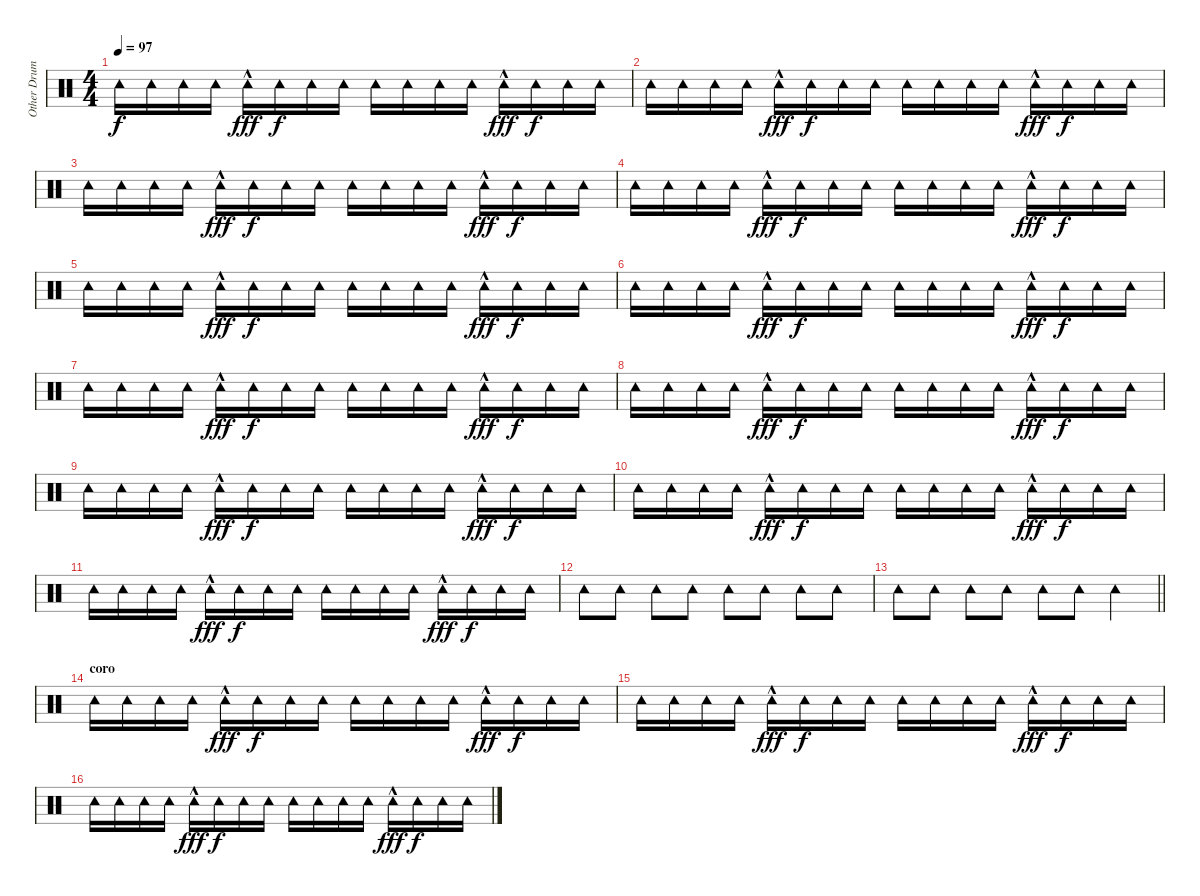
\track ("Other Drumer" "Other Drum") {instrument percussion}
\staff {score}
\articulation defaults
\ts (4 4)
\tempo 97
\clef neutral
\ks c "Tambourine (hit)".16{dy f} "Tambourine (hit)".16 "Tambourine (hit)".16 "Tambourine (hit)".16 "Tambourine (hit)"{hac}.16{dy fff} "Tambourine (hit)".16{dy f} "Tambourine (hit)".16 "Tambourine (hit)".16 "Tambourine (hit)".16 "Tambourine (hit)".16 "Tambourine (hit)".16 "Tambourine (hit)".16 "Tambourine (hit)"{hac}.16{dy fff} "Tambourine (hit)".16{dy f} "Tambourine (hit)".16 "Tambourine (hit)".16
|
"Tambourine (hit)".16 "Tambourine (hit)".16 "Tambourine (hit)".16 "Tambourine (hit)".16 "Tambourine (hit)"{hac}.16{dy fff} "Tambourine (hit)".16{dy f} "Tambourine (hit)".16 "Tambourine (hit)".16 "Tambourine (hit)".16 "Tambourine (hit)".16 "Tambourine (hit)".16 "Tambourine (hit)".16 "Tambourine (hit)"{hac}.16{dy fff} "Tambourine (hit)".16{dy f} "Tambourine (hit)".16 "Tambourine (hit)".16 |
"Tambourine (hit)".16 "Tambourine (hit)".16 "Tambourine (hit)".16 "Tambourine (hit)".16 "Tambourine (hit)"{hac}.16{dy fff} "Tambourine (hit)".16{dy f} "Tambourine (hit)".16 "Tambourine (hit)".16 "Tambourine (hit)".16 "Tambourine (hit)".16 "Tambourine (hit)".16 "Tambourine (hit)".16 "Tambourine (hit)"{hac}.16{dy fff} "Tambourine (hit)".16{dy f} "Tambourine (hit)".16 "Tambourine (hit)".16 |
"Tambourine (hit)".16 "Tambourine (hit)".16 "Tambourine (hit)".16 "Tambourine (hit)".16 "Tambourine (hit)"{hac}.16{dy fff} "Tambourine (hit)".16{dy f} "Tambourine (hit)".16 "Tambourine (hit)".16 "Tambourine (hit)".16 "Tambourine (hit)".16 "Tambourine (hit)".16 "Tambourine (hit)".16 "Tambourine (hit)"{hac}.16{dy fff} "Tambourine (hit)".16{dy f} "Tambourine (hit)".16 "Tambourine (hit)".16 |
"Tambourine (hit)".16 "Tambourine (hit)".16 "Tambourine (hit)".16 "Tambourine (hit)".16 "Tambourine (hit)"{hac}.16{dy fff} "Tambourine (hit)".16{dy f} "Tambourine (hit)".16 "Tambourine (hit)".16 "Tambourine (hit)".16 "Tambourine (hit)".16 "Tambourine (hit)".16 "Tambourine (hit)".16 "Tambourine (hit)"{hac}.16{dy fff} "Tambourine (hit)".16{dy f} "Tambourine (hit)".16 "Tambourine (hit)".16 |
"Tambourine (hit)".16 "Tambourine (hit)".16 "Tambourine (hit)".16 "Tambourine (hit)".16 "Tambourine (hit)"{hac}.16{dy fff} "Tambourine (hit)".16{dy f} "Tambourine (hit)".16 "Tambourine (hit)".16 "Tambourine (hit)".16 "Tambourine (hit)".16 "Tambourine (hit)".16 "Tambourine (hit)".16 "Tambourine (hit)"{hac}.16{dy fff} "Tambourine (hit)".16{dy f} "Tambourine (hit)".16 "Tambourine (hit)".16 |
"Tambourine (hit)".16 "Tambourine (hit)".16 "Tambourine (hit)".16 "Tambourine (hit)".16 "Tambourine (hit)"{hac}.16{dy fff} "Tambourine (hit)".16{dy f} "Tambourine (hit)".16 "Tambourine (hit)".16 "Tambourine (hit)".16 "Tambourine (hit)".16 "Tambourine (hit)".16 "Tambourine (hit)".16 "Tambourine (hit)"{hac}.16{dy fff} "Tambourine (hit)".16{dy f} "Tambourine (hit)".16 "Tambourine (hit)".16 |
"Tambourine (hit)".16 "Tambourine (hit)".16 "Tambourine (hit)".16 "Tambourine (hit)".16 "Tambourine (hit)"{hac}.16{dy fff} "Tambourine (hit)".16{dy f} "Tambourine (hit)".16 "Tambourine (hit)".16 "Tambourine (hit)".16 "Tambourine (hit)".16 "Tambourine (hit)".16 "Tambourine (hit)".16 "Tambourine (hit)"{hac}.16{dy fff} "Tambourine (hit)".16{dy f} "Tambourine (hit)".16 "Tambourine (hit)".16 |
"Tambourine (hit)".16 "Tambourine (hit)".16 "Tambourine (hit)".16 "Tambourine (hit)".16 "Tambourine (hit)"{hac}.16{dy fff} "Tambourine (hit)".16{dy f} "Tambourine (hit)".16 "Tambourine (hit)".16 "Tambourine (hit)".16 "Tambourine (hit)".16 "Tambourine (hit)".16 "Tambourine (hit)".16 "Tambourine (hit)"{hac}.16{dy fff} "Tambourine (hit)".16{dy f} "Tambourine (hit)".16 "Tambourine (hit)".16 |
"Tambourine (hit)".16 "Tambourine (hit)".16 "Tambourine (hit)".16 "Tambourine (hit)".16 "Tambourine (hit)"{hac}.16{dy fff} "Tambourine (hit)".16{dy f} "Tambourine (hit)".16 "Tambourine (hit)".16 "Tambourine (hit)".16 "Tambourine (hit)".16 "Tambourine (hit)".16 "Tambourine (hit)".16 "Tambourine (hit)"{hac}.16{dy fff} "Tambourine (hit)".16{dy f} "Tambourine (hit)".16 "Tambourine (hit)".16 |
"Tambourine (hit)".16 "Tambourine (hit)".16 "Tambourine (hit)".16 "Tambourine (hit)".16 "Tambourine (hit)"{hac}.16{dy fff} "Tambourine (hit)".16{dy f} "Tambourine (hit)".16 "Tambourine (hit)".16 "Tambourine (hit)".16 "Tambourine (hit)".16 "Tambourine (hit)".16 "Tambourine (hit)".16 "Tambourine (hit)"{hac}.16{dy fff} "Tambourine (hit)".16{dy f} "Tambourine (hit)".16 "Tambourine (hit)".16 |
"Tambourine (hit)".8 "Tambourine (hit)".8 "Tambourine (hit)".8 "Tambourine (hit)".8 "Tambourine (hit)".8 "Tambourine (hit)".8 "Tambourine (hit)".8 "Tambourine (hit)".8 |
\barLineRight lightlight "Tambourine (hit)".8 "Tambourine (hit)".8 "Tambourine (hit)".8 "Tambourine (hit)".8 "Tambourine (hit)".8 "Tambourine (hit)".8 "Tambourine (hit)".4
|
\section ("" "coro")
"Tambourine (hit)".16 "Tambourine (hit)".16 "Tambourine (hit)".16 "Tambourine (hit)".16 "Tambourine (hit)"{hac}.16{dy fff} "Tambourine (hit)".16{dy f} "Tambourine (hit)".16 "Tambourine (hit)".16 "Tambourine (hit)".16 "Tambourine (hit)".16 "Tambourine (hit)".16 "Tambourine (hit)".16 "Tambourine (hit)"{hac}.16{dy fff} "Tambourine (hit)".16{dy f} "Tambourine (hit)".16 "Tambourine (hit)".16 |
"Tambourine (hit)".16 "Tambourine (hit)".16 "Tambourine (hit)".16 "Tambourine (hit)".16 "Tambourine (hit)"{hac}.16{dy fff} "Tambourine (hit)".16{dy f} "Tambourine (hit)".16 "Tambourine (hit)".16 "Tambourine (hit)".16 "Tambourine (hit)".16 "Tambourine (hit)".16 "Tambourine (hit)".16 "Tambourine (hit)"{hac}.16{dy fff} "Tambourine (hit)".16{dy f} "Tambourine (hit)".16 "Tambourine (hit)".16 |
"Tambourine (hit)".16 "Tambourine (hit)".16 "Tambourine (hit)".16 "Tambourine (hit)".16 "Tambourine (hit)"{hac}.16{dy fff} "Tambourine (hit)".16{dy f} "Tambourine (hit)".16 "Tambourine (hit)".16 "Tambourine (hit)".16 "Tambourine (hit)".16 "Tambourine (hit)".16 "Tambourine (hit)".16 "Tambourine (hit)"{hac}.16{dy fff} "Tambourine (hit)".16{dy f} "Tambourine (hit)".16 "Tambourine (hit)".16
